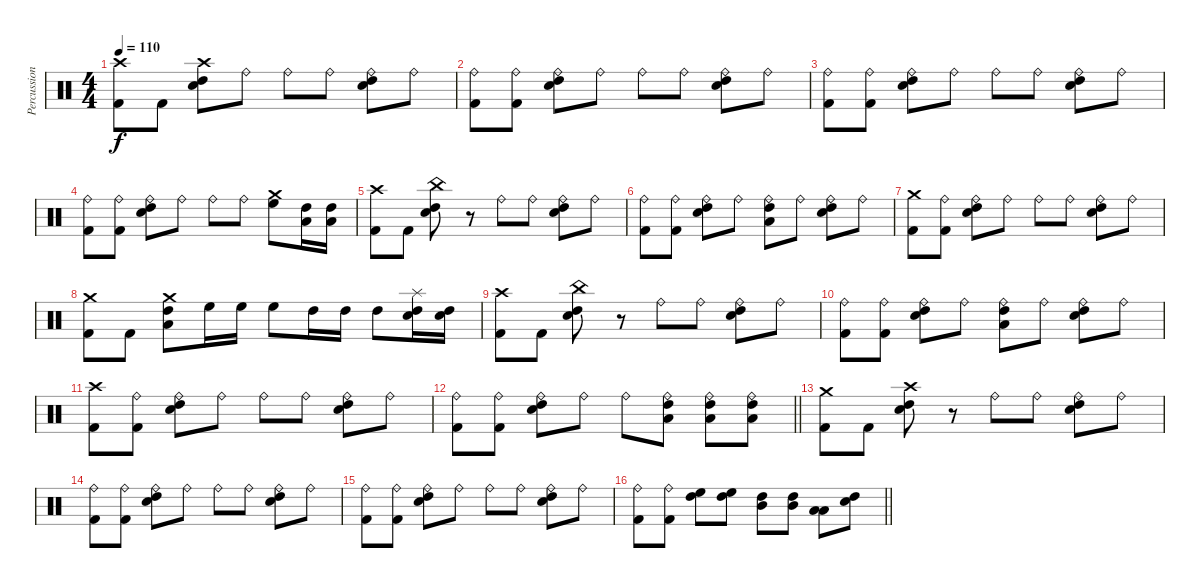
\track ("Percussion" "Percussion") {instrument percussion}
\staff {score}
\articulation defaults
\ts (4 4)
\tempo 110
\clef neutral
\ks c
("Crash high (hit)" "Kick (hit) 2").8{dy f} "Kick (hit) 2".8 ("Crash high (hit)" "High Tom (hit)" "Snare (hit) 2").8 "Ride (bell)".8 "Ride (bell)".8 "Ride (bell)".8 ("Ride (bell)" "High Tom (hit)" "Snare (hit) 2").8 "Ride (bell)".8 |
("Ride (bell)" "Kick (hit) 2").8 ("Ride (bell)" "Kick (hit) 2").8 ("Ride (bell)" "High Tom (hit)" "Snare (hit) 2").8 "Ride (bell)".8 "Ride (bell)".8 "Ride (bell)".8 ("Ride (bell)" "High Tom (hit)" "Snare (hit) 2").8 "Ride (bell)".8 |
("Ride (bell)" "Kick (hit) 2").8 ("Ride (bell)" "Kick (hit) 2").8 ("Ride (bell)" "High Tom (hit)" "Snare (hit) 2").8 "Ride (bell)".8 "Ride (bell)".8 "Ride (bell)".8 ("Ride (bell)" "High Tom (hit)" "Snare (hit) 2").8 "Ride (bell)".8 |
("Ride (bell)" "Kick (hit) 2").8 ("Ride (bell)" "Kick (hit) 2").8 ("Ride (bell)" "High Tom (hit)" "Snare (hit) 2").8 "Ride (bell)".8 "Ride (bell)".8 "Ride (bell)".8 ("Crash medium (hit)" "High Floor Tom (hit)").8 ("High Tom (hit)" "Low Tom (hit)").16 ("High Tom (hit)" "Low Tom (hit)").16 |
("Crash high (hit)" "Kick (hit) 2").8 "Kick (hit) 2".8 ("China (hit)" "High Tom (hit)" "Snare (hit) 2").8 r.8 "Ride (bell)".8 "Ride (bell)".8 ("Ride (bell)" "High Tom (hit)" "Snare (hit) 2").8 "Ride (bell)".8 |
("Ride (bell)" "Kick (hit) 2").8 ("Ride (bell)" "Kick (hit) 2").8 ("Ride (bell)" "High Tom (hit)" "Snare (hit) 2").8 "Ride (bell)".8 ("Ride (bell)" "High Tom (hit)" "Low Tom (hit)").8 "Ride (bell)".8 ("Ride (bell)" "High Tom (hit)" "Snare (hit) 2").8 "Ride (bell)".8 |
("Crash medium (hit)" "Kick (hit) 2").8 ("Ride (bell)" "Kick (hit) 2").8 ("Ride (bell)" "High Tom (hit)" "Snare (hit) 2").8 "Ride (bell)".8 "Ride (bell)".8 "Ride (bell)".8 ("Ride (bell)" "High Tom (hit)" "Snare (hit) 2").8 "Ride (bell)".8 |
("Crash medium (hit)" "Kick (hit) 2").8 "Kick (hit) 2".8 ("Crash medium (hit)" "High Tom (hit)" "Low Tom (hit)").8 "High Floor Tom (hit)".16 "High Floor Tom (hit)".16 "High Floor Tom (hit)".8 "High Tom (hit)".16 "High Tom (hit)".16 "High Tom (hit)".8 ("Splash (hit)" "High Tom (hit)" "Snare (hit) 2").16 ("High Tom (hit)" "Snare (hit) 2").16 |
("Crash high (hit)" "Kick (hit) 2").8 "Kick (hit) 2".8 ("China (hit)" "High Tom (hit)" "Snare (hit) 2").8 r.8 "Ride (bell)".8 "Ride (bell)".8 ("Ride (bell)" "High Tom (hit)" "Snare (hit) 2").8 "Ride (bell)".8 |
("Ride (bell)" "Kick (hit) 2").8 ("Ride (bell)" "Kick (hit) 2").8 ("Ride (bell)" "High Tom (hit)" "Snare (hit) 2").8 "Ride (bell)".8 ("Ride (bell)" "High Tom (hit)" "Low Tom (hit)").8 "Ride (bell)".8 ("Ride (bell)" "High Tom (hit)" "Snare (hit) 2").8 "Ride (bell)".8 |
("Crash high (hit)" "Kick (hit) 2").8 ("Ride (bell)" "Kick (hit) 2").8 ("Ride (bell)" "High Tom (hit)" "Snare (hit) 2").8 "Ride (bell)".8 "Ride (bell)".8 "Ride (bell)".8 ("Ride (bell)" "High Tom (hit)" "Snare (hit) 2").8 "Ride (bell)".8 |
\barLineRight lightlight
("Ride (bell)" "Kick (hit) 2").8 ("Ride (bell)" "Kick (hit) 2").8 ("Ride (bell)" "High Tom (hit)" "Snare (hit) 2").8 "Ride (bell)".8 "Ride (bell)".8 ("Ride (bell)" "High Tom (hit)" "Low Tom (hit)").8 ("Ride (bell)" "High Tom (hit)" "Low Tom (hit)").8 ("Ride (bell)" "High Tom (hit)" "Low Tom (hit)").8 |
("Crash medium (hit)" "Kick (hit) 2").8 "Kick (hit) 2".8 ("Crash high (hit)" "High Tom (hit)" "Snare (hit) 2").8 r.8 "Ride (bell)".8 "Ride (bell)".8 ("Ride (bell)" "High Tom (hit)" "Snare (hit) 2").8 "Ride (bell)".8 |
("Ride (bell)" "Kick (hit) 2").8 ("Ride (bell)" "Kick (hit) 2").8 ("Ride (bell)" "High Tom (hit)" "Snare (hit) 2").8 "Ride (bell)".8 "Ride (bell)".8 "Ride (bell)".8 ("Ride (bell)" "High Tom (hit)" "Snare (hit) 2").8 "Ride (bell)".8 |
("Ride (bell)" "Kick (hit) 2").8 ("Ride (bell)" "Kick (hit) 2").8 ("Ride (bell)" "High Tom (hit)" "Snare (hit) 2").8 "Ride (bell)".8 "Ride (bell)".8 "Ride (bell)".8 ("Ride (bell)" "High Tom (hit)" "Snare (hit) 2").8 "Ride (bell)".8 |
\barLineRight lightlight
("Ride (bell)" "Kick (hit) 2").8 ("Ride (bell)" "Kick (hit) 2").8 ("High Floor Tom (hit)" "High Tom (hit)").8 ("High Floor Tom (hit)" "High Tom (hit)").8 ("High Tom (hit)" "Mid Tom (hit)").8 ("High Tom (hit)" "Mid Tom (hit)").8 ("Low Tom (hit)" "Low Floor Tom (hit)").8 ("High Tom (hit)" "Snare (hit) 2").8
